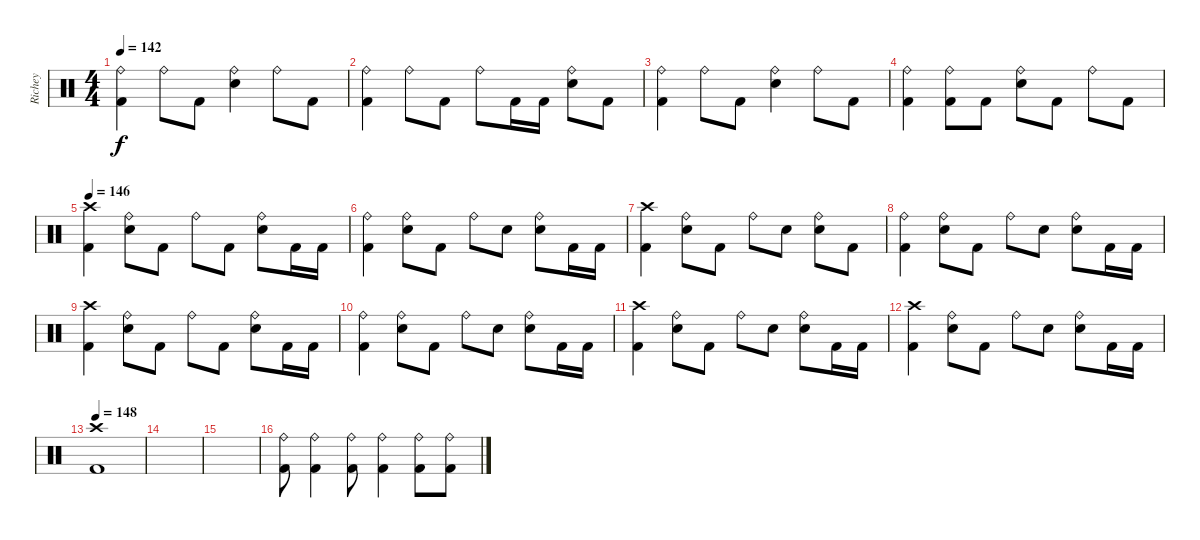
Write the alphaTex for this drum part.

\track ("Richey" "Richey") {instrument percussion}
\staff {score}
\articulation defaults
\ts (4 4)
\tempo 142
\clef neutral
\ks c
("Ride (bell)" "Kick (hit) 2").4{dy f} "Ride (bell)".8 "Kick (hit) 2".8 ("Ride (bell)" "Snare (hit) 2").4 "Ride (bell)".8 "Kick (hit) 2".8 |
("Ride (bell)" "Kick (hit) 2").4 "Ride (bell)".8 "Kick (hit) 2".8 "Ride (bell)".8 "Kick (hit) 2".16 "Kick (hit) 2".16 ("Ride (bell)" "Snare (hit) 2").8 "Kick (hit) 2".8 |
("Ride (bell)" "Kick (hit) 2").4 "Ride (bell)".8 "Kick (hit) 2".8 ("Ride (bell)" "Snare (hit) 2").4 "Ride (bell)".8 "Kick (hit) 2".8 |
("Ride (bell)" "Kick (hit) 2").4 ("Ride (bell)" "Kick (hit) 2").8 "Kick (hit) 2".8 ("Ride (bell)" "Snare (hit) 2").8 "Kick (hit) 2".8 "Ride (bell)".8 "Kick (hit) 2".8 |
\tempo 146
("Crash high (hit)" "Kick (hit) 2").4 ("Ride (bell)" "Snare (hit) 2").8 "Kick (hit) 2".8 "Ride (bell)".8 "Kick (hit) 2".8 ("Ride (bell)" "Snare (hit) 2").8 "Kick (hit) 2".16 "Kick (hit) 2".16 |
("Ride (bell)" "Kick (hit) 2").4 ("Ride (bell)" "Snare (hit) 2").8 "Kick (hit) 2".8 "Ride (bell)".8 "Snare (hit) 2".8 ("Ride (bell)" "Snare (hit) 2").8 "Kick (hit) 2".16 "Kick (hit) 2".16 |
("Crash high (hit)" "Kick (hit) 2").4 ("Ride (bell)" "Snare (hit) 2").8 "Kick (hit) 2".8 "Ride (bell)".8 "Snare (hit) 2".8 ("Ride (bell)" "Snare (hit) 2").8 "Kick (hit) 2".8 |
("Ride (bell)" "Kick (hit) 2").4 ("Ride (bell)" "Snare (hit) 2").8 "Kick (hit) 2".8 "Ride (bell)".8 "Snare (hit) 2".8 ("Ride (bell)" "Snare (hit) 2").8 "Kick (hit) 2".16 "Kick (hit) 2".16 |
("Crash high (hit)" "Kick (hit) 2").4 ("Ride (bell)" "Snare (hit) 2").8 "Kick (hit) 2".8 "Ride (bell)".8 "Kick (hit) 2".8 ("Ride (bell)" "Snare (hit) 2").8 "Kick (hit) 2".16 "Kick (hit) 2".16 |
("Ride (bell)" "Kick (hit) 2").4 ("Ride (bell)" "Snare (hit) 2").8 "Kick (hit) 2".8 "Ride (bell)".8 "Snare (hit) 2".8 ("Ride (bell)" "Snare (hit) 2").8 "Kick (hit) 2".16 "Kick (hit) 2".16 |
("Crash high (hit)" "Kick (hit) 2").4 ("Ride (bell)" "Snare (hit) 2").8 "Kick (hit) 2".8 "Ride (bell)".8 "Snare (hit) 2".8 ("Ride (bell)" "Snare (hit) 2").8 "Kick (hit) 2".16 "Kick (hit) 2".16 |
("Crash high (hit)" "Kick (hit) 2").4 ("Ride (bell)" "Snare (hit) 2").8 "Kick (hit) 2".8 "Ride (bell)".8 "Snare (hit) 2".8 ("Ride (bell)" "Snare (hit) 2").8 "Kick (hit) 2".16 "Kick (hit) 2".16 |
\tempo 148
("Crash high (hit)" "Kick (hit) 2").1 |
|
|
("Ride (bell)" "Kick (hit) 2").8 ("Ride (bell)" "Kick (hit) 2").4 ("Ride (bell)" "Kick (hit) 2").8 ("Ride (bell)" "Kick (hit) 2").4 ("Ride (bell)" "Kick (hit) 2").8 ("Ride (bell)" "Kick (hit) 2").8
